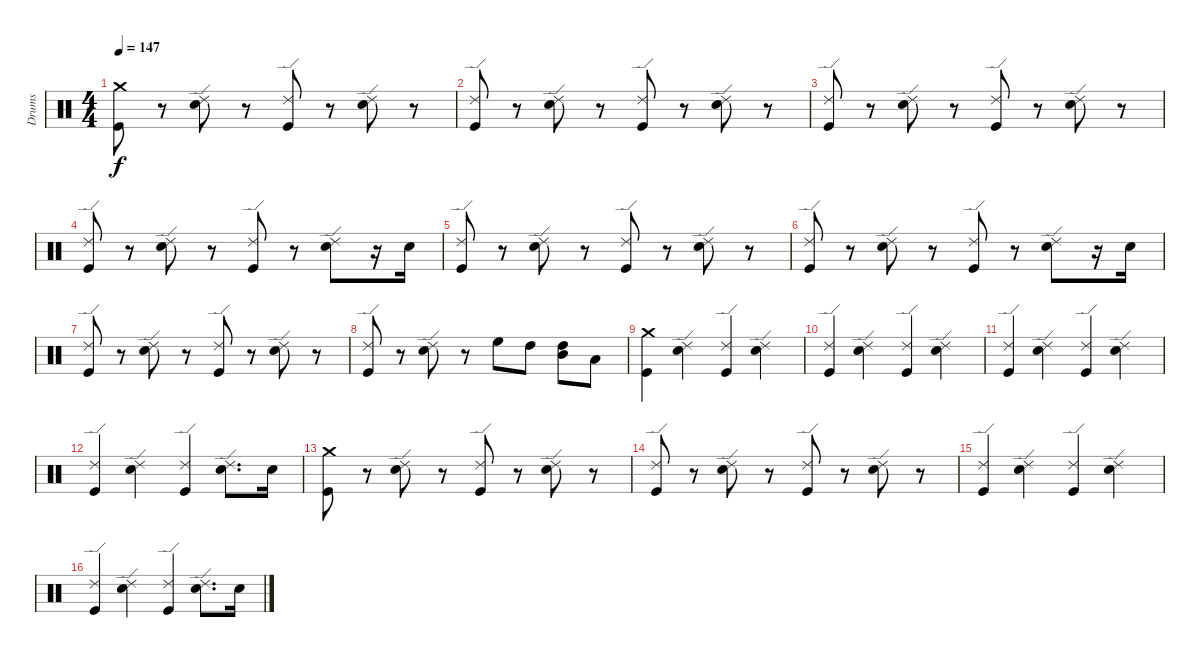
\track ("Drums" "Drums") {instrument percussion}
\staff {score}
\articulation defaults
\ts (4 4)
\tempo 147
\clef neutral
\ks c
("Crash medium (hit)" "Kick (hit)").8{dy f} r.8 ("Ride (edge) 2" "Snare (hit) 2").8 r.8 ("Ride (edge) 2" "Kick (hit)").8 r.8 ("Ride (edge) 2" "Snare (hit) 2").8 r.8 |
("Ride (edge) 2" "Kick (hit)").8 r.8 ("Ride (edge) 2" "Snare (hit) 2").8 r.8 ("Ride (edge) 2" "Kick (hit)").8 r.8 ("Ride (edge) 2" "Snare (hit) 2").8 r.8 |
("Ride (edge) 2" "Kick (hit)").8 r.8 ("Ride (edge) 2" "Snare (hit) 2").8 r.8 ("Ride (edge) 2" "Kick (hit)").8 r.8 ("Ride (edge) 2" "Snare (hit) 2").8 r.8 |
("Ride (edge) 2" "Kick (hit)").8 r.8 ("Ride (edge) 2" "Snare (hit) 2").8 r.8 ("Ride (edge) 2" "Kick (hit)").8 r.8 ("Ride (edge) 2" "Snare (hit) 2").8 r.16 "Snare (hit) 2".16 |
("Ride (edge) 2" "Kick (hit)").8 r.8 ("Ride (edge) 2" "Snare (hit) 2").8 r.8 ("Ride (edge) 2" "Kick (hit)").8 r.8 ("Ride (edge) 2" "Snare (hit) 2").8 r.8 |
("Ride (edge) 2" "Kick (hit)").8 r.8 ("Ride (edge) 2" "Snare (hit) 2").8 r.8 ("Ride (edge) 2" "Kick (hit)").8 r.8 ("Ride (edge) 2" "Snare (hit) 2").8 r.16 "Snare (hit) 2".16 |
("Ride (edge) 2" "Kick (hit)").8 r.8 ("Ride (edge) 2" "Snare (hit) 2").8 r.8 ("Ride (edge) 2" "Kick (hit)").8 r.8 ("Ride (edge) 2" "Snare (hit) 2").8 r.8 |
("Ride (edge) 2" "Kick (hit)").8 r.8 ("Ride (edge) 2" "Snare (hit) 2").8 r.8 "High Floor Tom (hit)".8 "High Tom (hit)".8 ("Mid Tom (hit)" "High Tom (hit)").8 "Low Floor Tom (hit)".8 |
("Crash medium (hit)" "Kick (hit)").4 ("Ride (edge) 2" "Snare (hit) 2").4 ("Ride (edge) 2" "Kick (hit)").4 ("Ride (edge) 2" "Snare (hit) 2").4 |
("Ride (edge) 2" "Kick (hit)").4 ("Ride (edge) 2" "Snare (hit) 2").4 ("Ride (edge) 2" "Kick (hit)").4 ("Ride (edge) 2" "Snare (hit) 2").4 |
("Ride (edge) 2" "Kick (hit)").4 ("Ride (edge) 2" "Snare (hit) 2").4 ("Ride (edge) 2" "Kick (hit)").4 ("Ride (edge) 2" "Snare (hit) 2").4 |
("Ride (edge) 2" "Kick (hit)").4 ("Ride (edge) 2" "Snare (hit) 2").4 ("Ride (edge) 2" "Kick (hit)").4 ("Ride (edge) 2" "Snare (hit) 2").8{d} "Snare (hit) 2".16 |
("Crash medium (hit)" "Kick (hit)").8 r.8 ("Ride (edge) 2" "Snare (hit) 2").8 r.8 ("Ride (edge) 2" "Kick (hit)").8 r.8 ("Ride (edge) 2" "Snare (hit) 2").8 r.8 |
("Ride (edge) 2" "Kick (hit)").8 r.8 ("Ride (edge) 2" "Snare (hit) 2").8 r.8 ("Ride (edge) 2" "Kick (hit)").8 r.8 ("Ride (edge) 2" "Snare (hit) 2").8 r.8 |
("Ride (edge) 2" "Kick (hit)").4 ("Ride (edge) 2" "Snare (hit) 2").4 ("Ride (edge) 2" "Kick (hit)").4 ("Ride (edge) 2" "Snare (hit) 2").4 |
("Ride (edge) 2" "Kick (hit)").4 ("Ride (edge) 2" "Snare (hit) 2").4 ("Ride (edge) 2" "Kick (hit)").4 ("Ride (edge) 2" "Snare (hit) 2").8{d} "Snare (hit) 2".16
